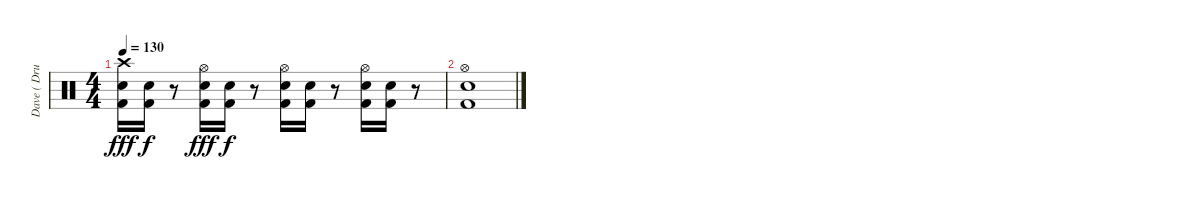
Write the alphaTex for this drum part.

\track ("Dave ( Drumm )" "Dave ( Dru") {instrument percussion}
\staff {score}
\articulation defaults
\ts (4 4)
\tempo 130
\clef neutral
\ks c
("Crash high (hit)" "Snare (hit) 2" "Kick (hit) 2").16{dy fff} ("Snare (hit) 2" "Kick (hit) 2").16{dy f} r.8 ("Hi-Hat (open)" "Snare (hit) 2" "Kick (hit) 2").16{dy fff} ("Snare (hit) 2" "Kick (hit) 2").16{dy f} r.8 ("Hi-Hat (open)" "Snare (hit) 2" "Kick (hit) 2").16 ("Snare (hit) 2" "Kick (hit) 2").16 r.8 ("Hi-Hat (open)" "Snare (hit) 2" "Kick (hit) 2").16 ("Snare (hit) 2" "Kick (hit) 2").16 r.8 |
("Hi-Hat (open)" "Snare (hit) 2" "Kick (hit) 2").1
